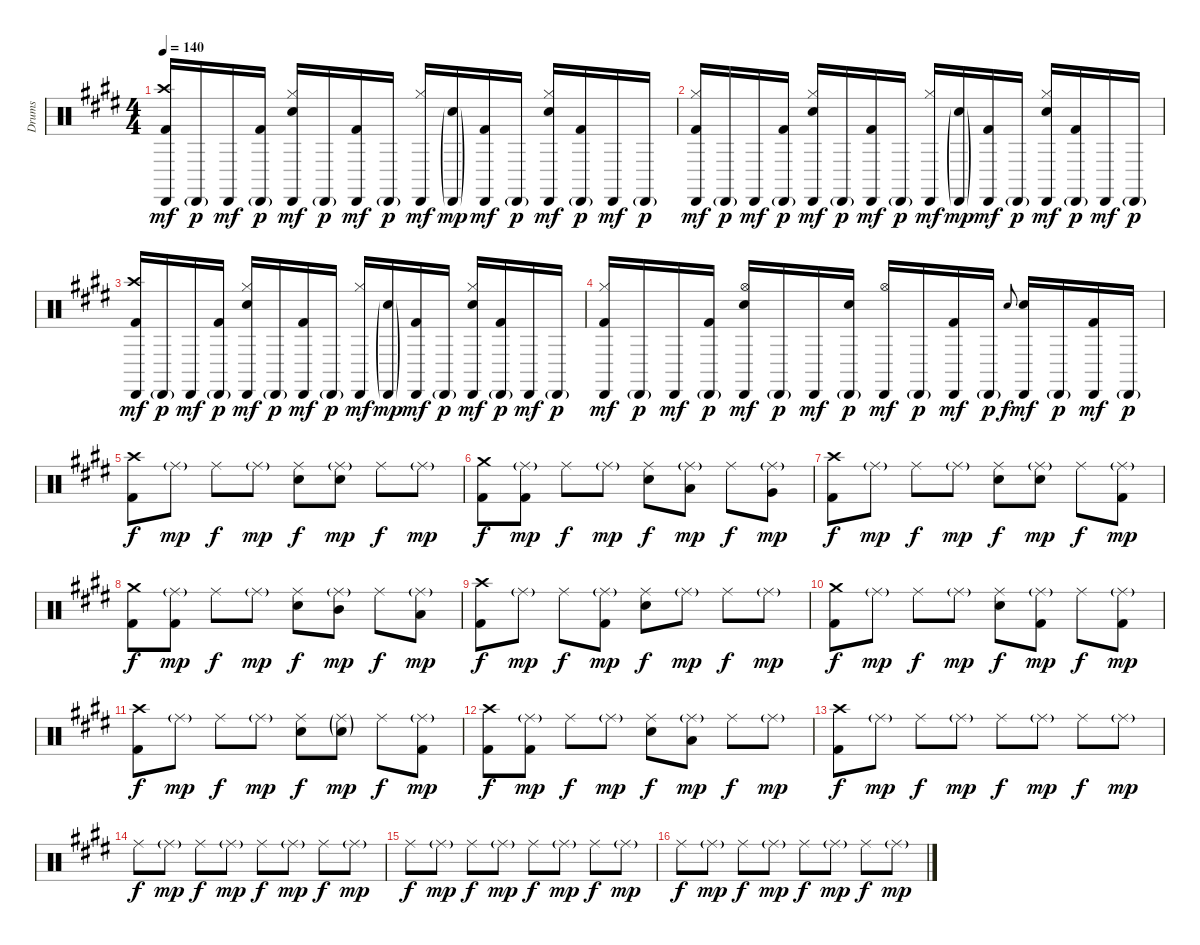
\track ("Drums" "Drums") {instrument percussion}
\staff {score}
\articulation defaults
\ts (4 4)
\tempo 140
\clef neutral
\ks e
("Crash high (hit)" "Cabasa (hit)" "Kick (hit) 2").16{dy mf} "Cabasa (hit)"{g}.16{dy p} "Cabasa (hit)".16{dy mf} ("Cabasa (hit)"{g} "Kick (hit) 2").16{dy p} ("Hi-Hat (closed)" "Cabasa (hit)" "Snare (hit) 2").16{dy mf} "Cabasa (hit)"{g}.16{dy p} ("Cabasa (hit)" "Kick (hit) 2").16{dy mf} "Cabasa (hit)"{g}.16{dy p} ("Hi-Hat (closed)" "Cabasa (hit)").16{dy mf} ("Cabasa (hit)"{g} "Snare (hit) 2"{g}).16{dy mp} ("Cabasa (hit)" "Kick (hit) 2").16{dy mf} "Cabasa (hit)"{g}.16{dy p} ("Hi-Hat (closed)" "Cabasa (hit)" "Snare (hit) 2").16{dy mf} ("Cabasa (hit)"{g} "Kick (hit) 2").16{dy p} "Cabasa (hit)".16{dy mf} "Cabasa (hit)"{g}.16{dy p} |
("Hi-Hat (closed)" "Cabasa (hit)" "Kick (hit) 2").16{dy mf} "Cabasa (hit)"{g}.16{dy p} "Cabasa (hit)".16{dy mf} ("Cabasa (hit)"{g} "Kick (hit) 2").16{dy p} ("Hi-Hat (closed)" "Cabasa (hit)" "Snare (hit) 2").16{dy mf} "Cabasa (hit)"{g}.16{dy p} ("Cabasa (hit)" "Kick (hit) 2").16{dy mf} "Cabasa (hit)"{g}.16{dy p} ("Hi-Hat (closed)" "Cabasa (hit)").16{dy mf} ("Cabasa (hit)"{g} "Snare (hit) 2"{g}).16{dy mp} ("Cabasa (hit)" "Kick (hit) 2").16{dy mf} "Cabasa (hit)"{g}.16{dy p} ("Hi-Hat (closed)" "Cabasa (hit)" "Snare (hit) 2").16{dy mf} ("Cabasa (hit)"{g} "Kick (hit) 2").16{dy p} "Cabasa (hit)".16{dy mf} "Cabasa (hit)"{g}.16{dy p} |
("Crash high (hit)" "Cabasa (hit)" "Kick (hit) 2").16{dy mf} "Cabasa (hit)"{g}.16{dy p} "Cabasa (hit)".16{dy mf} ("Cabasa (hit)"{g} "Kick (hit) 2").16{dy p} ("Hi-Hat (closed)" "Cabasa (hit)" "Snare (hit) 2").16{dy mf} "Cabasa (hit)"{g}.16{dy p} ("Cabasa (hit)" "Kick (hit) 2").16{dy mf} "Cabasa (hit)"{g}.16{dy p} ("Hi-Hat (closed)" "Cabasa (hit)").16{dy mf} ("Cabasa (hit)"{g} "Snare (hit) 2"{g}).16{dy mp} ("Cabasa (hit)" "Kick (hit) 2").16{dy mf} "Cabasa (hit)"{g}.16{dy p} ("Hi-Hat (closed)" "Cabasa (hit)" "Snare (hit) 2").16{dy mf} ("Cabasa (hit)"{g} "Kick (hit) 2").16{dy p} "Cabasa (hit)".16{dy mf} "Cabasa (hit)"{g}.16{dy p} |
("Hi-Hat (closed)" "Cabasa (hit)" "Kick (hit) 2").16{dy mf} "Cabasa (hit)"{g}.16{dy p} "Cabasa (hit)".16{dy mf} ("Cabasa (hit)"{g} "Kick (hit) 2").16{dy p} ("Hi-Hat (open)" "Cabasa (hit)" "Snare (hit) 2").16{dy mf} "Cabasa (hit)"{g}.16{dy p} "Cabasa (hit)".16{dy mf} ("Cabasa (hit)"{g} "Snare (hit) 2").16{dy p} ("Hi-Hat (open)" "Cabasa (hit)").16{dy mf} "Cabasa (hit)"{g}.16{dy p} ("Cabasa (hit)" "Kick (hit) 2").16{dy mf} "Cabasa (hit)"{g}.16{dy p} "Snare (hit) 2"{h}.8{gr onbeat dy f} ("Cabasa (hit)" "Snare (hit) 2").16{dy mf} "Cabasa (hit)"{g}.16{dy p} ("Cabasa (hit)" "Kick (hit) 2").16{dy mf} "Cabasa (hit)"{g}.16{dy p} |
("Crash high (hit)" "Kick (hit) 2").8{dy f} "Ride (middle)"{g}.8{dy mp} "Ride (middle)".8{dy f} "Ride (middle)"{g}.8{dy mp} ("Ride (middle)" "Snare (hit) 2").8{dy f} ("Ride (middle)"{g} "Snare (hit) 2").8{dy mp} "Ride (middle)".8{dy f} "Ride (middle)"{g}.8{dy mp} |
("Crash medium (hit)" "Kick (hit) 2").8{dy f} ("Ride (middle)"{g} "Kick (hit) 2").8{dy mp} "Ride (middle)".8{dy f} "Ride (middle)"{g}.8{dy mp} ("Ride (middle)" "Snare (hit) 2").8{dy f} ("Ride (middle)"{g} "Low Tom (hit)").8{dy mp} "Ride (middle)".8{dy f} ("Ride (middle)"{g} "Very Low Tom (hit)").8{dy mp} |
("Crash high (hit)" "Kick (hit) 2").8{dy f} "Ride (middle)"{g}.8{dy mp} "Ride (middle)".8{dy f} "Ride (middle)"{g}.8{dy mp} ("Ride (middle)" "Snare (hit) 2").8{dy f} ("Ride (middle)"{g} "Snare (hit) 2").8{dy mp} "Ride (middle)".8{dy f} ("Ride (middle)"{g} "Kick (hit) 2").8{dy mp} |
("Crash medium (hit)" "Kick (hit) 2").8{dy f} ("Ride (middle)"{g} "Kick (hit) 2").8{dy mp} "Ride (middle)".8{dy f} "Ride (middle)"{g}.8{dy mp} ("Ride (middle)" "Snare (hit) 2").8{dy f} ("Ride (middle)"{g} "Mid Tom (hit)").8{dy mp} "Ride (middle)".8{dy f} ("Ride (middle)"{g} "Low Tom (hit)").8{dy mp} |
("Crash high (hit)" "Kick (hit) 2").8{dy f} "Ride (middle)"{g}.8{dy mp} "Ride (middle)".8{dy f} ("Ride (middle)"{g} "Kick (hit) 2").8{dy mp} ("Ride (middle)" "Snare (hit) 2").8{dy f} "Ride (middle)"{g}.8{dy mp} "Ride (middle)".8{dy f} "Ride (middle)"{g}.8{dy mp} |
("Crash medium (hit)" "Kick (hit) 2").8{dy f} "Ride (middle)"{g}.8{dy mp} "Ride (middle)".8{dy f} "Ride (middle)"{g}.8{dy mp} ("Ride (middle)" "Snare (hit) 2").8{dy f} ("Ride (middle)"{g} "Kick (hit) 2").8{dy mp} "Ride (middle)".8{dy f} ("Ride (middle)"{g} "Kick (hit) 2").8{dy mp} |
("Crash high (hit)" "Kick (hit) 2").8{dy f} "Ride (middle)"{g}.8{dy mp} "Ride (middle)".8{dy f} "Ride (middle)"{g}.8{dy mp} ("Ride (middle)" "Snare (hit) 2").8{dy f} ("Ride (middle)"{g} "Snare (hit) 2"{g}).8{dy mp} "Ride (middle)".8{dy f} ("Ride (middle)"{g} "Kick (hit) 2").8{dy mp} |
("Crash high (hit)" "Kick (hit) 2").8{dy f} ("Ride (middle)"{g} "Kick (hit) 2").8{dy mp} "Ride (middle)".8{dy f} "Ride (middle)"{g}.8{dy mp} ("Ride (middle)" "Snare (hit) 2").8{dy f} ("Ride (middle)"{g} "Low Tom (hit)").8{dy mp} "Ride (middle)".8{dy f} "Ride (middle)"{g}.8{dy mp} |
("Crash high (hit)" "Kick (hit) 2").8{dy f} "Ride (middle)"{g}.8{dy mp} "Ride (middle)".8{dy f} "Ride (middle)"{g}.8{dy mp} "Ride (middle)".8{dy f} "Ride (middle)"{g}.8{dy mp} "Ride (middle)".8{dy f} "Ride (middle)"{g}.8{dy mp} |
"Ride (middle)".8{dy f} "Ride (middle)"{g}.8{dy mp} "Ride (middle)".8{dy f} "Ride (middle)"{g}.8{dy mp} "Ride (middle)".8{dy f} "Ride (middle)"{g}.8{dy mp} "Ride (middle)".8{dy f} "Ride (middle)"{g}.8{dy mp} |
"Ride (middle)".8{dy f} "Ride (middle)"{g}.8{dy mp} "Ride (middle)".8{dy f} "Ride (middle)"{g}.8{dy mp} "Ride (middle)".8{dy f} "Ride (middle)"{g}.8{dy mp} "Ride (middle)".8{dy f} "Ride (middle)"{g}.8{dy mp} |
"Ride (middle)".8{dy f} "Ride (middle)"{g}.8{dy mp} "Ride (middle)".8{dy f} "Ride (middle)"{g}.8{dy mp} "Ride (middle)".8{dy f} "Ride (middle)"{g}.8{dy mp} "Ride (middle)".8{dy f} "Ride (middle)"{g}.8{dy mp}
